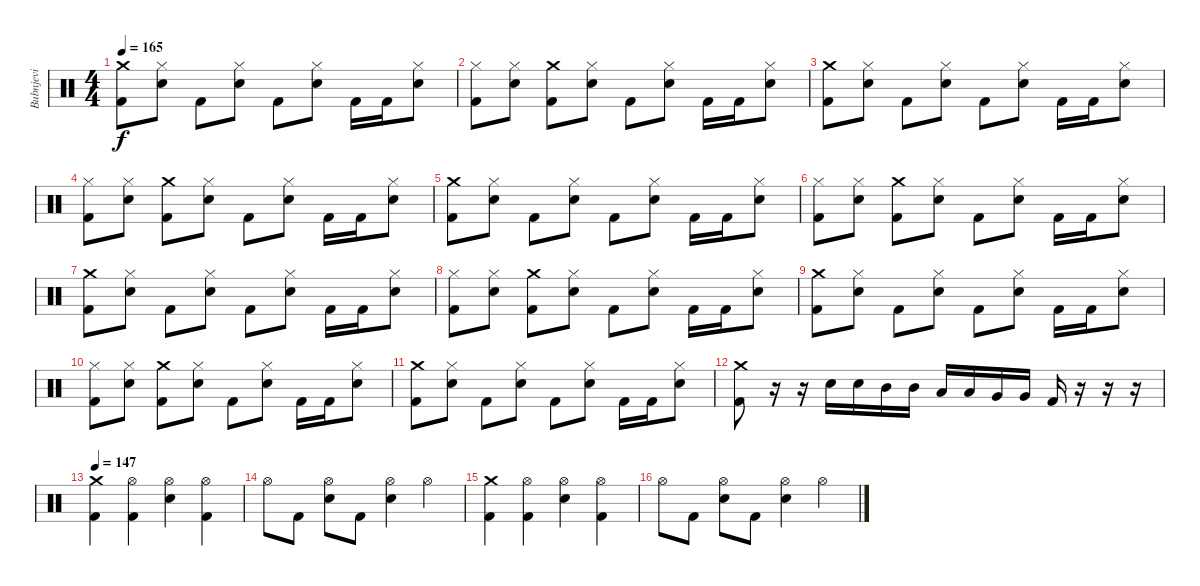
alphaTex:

\track ("Bubnjevi" "Bubnjevi") {instrument percussion}
\staff {score}
\articulation defaults
\ts (4 4)
\tempo 165
\clef neutral
\ks c
("Crash medium (hit)" "Kick (hit) 2").8{dy f} ("Hi-Hat (closed)" "Electric Snare (hit)").8 "Kick (hit) 2".8 ("Hi-Hat (closed)" "Electric Snare (hit)").8 "Kick (hit) 2".8 ("Hi-Hat (closed)" "Electric Snare (hit)").8 "Kick (hit) 2".16 "Kick (hit) 2".16 ("Hi-Hat (closed)" "Electric Snare (hit)").8 |
("Hi-Hat (closed)" "Kick (hit) 2").8 ("Hi-Hat (closed)" "Electric Snare (hit)").8 ("Crash medium (hit)" "Kick (hit) 2").8 ("Hi-Hat (closed)" "Electric Snare (hit)").8 "Kick (hit) 2".8 ("Hi-Hat (closed)" "Electric Snare (hit)").8 "Kick (hit) 2".16 "Kick (hit) 2".16 ("Hi-Hat (closed)" "Electric Snare (hit)").8 |
("Crash medium (hit)" "Kick (hit) 2").8 ("Hi-Hat (closed)" "Electric Snare (hit)").8 "Kick (hit) 2".8 ("Hi-Hat (closed)" "Electric Snare (hit)").8 "Kick (hit) 2".8 ("Hi-Hat (closed)" "Electric Snare (hit)").8 "Kick (hit) 2".16 "Kick (hit) 2".16 ("Hi-Hat (closed)" "Electric Snare (hit)").8 |
("Hi-Hat (closed)" "Kick (hit) 2").8 ("Hi-Hat (closed)" "Electric Snare (hit)").8 ("Crash medium (hit)" "Kick (hit) 2").8 ("Hi-Hat (closed)" "Electric Snare (hit)").8 "Kick (hit) 2".8 ("Hi-Hat (closed)" "Electric Snare (hit)").8 "Kick (hit) 2".16 "Kick (hit) 2".16 ("Hi-Hat (closed)" "Electric Snare (hit)").8 |
("Crash medium (hit)" "Kick (hit) 2").8 ("Hi-Hat (closed)" "Electric Snare (hit)").8 "Kick (hit) 2".8 ("Hi-Hat (closed)" "Electric Snare (hit)").8 "Kick (hit) 2".8 ("Hi-Hat (closed)" "Electric Snare (hit)").8 "Kick (hit) 2".16 "Kick (hit) 2".16 ("Hi-Hat (closed)" "Electric Snare (hit)").8 |
("Hi-Hat (closed)" "Kick (hit) 2").8 ("Hi-Hat (closed)" "Electric Snare (hit)").8 ("Crash medium (hit)" "Kick (hit) 2").8 ("Hi-Hat (closed)" "Electric Snare (hit)").8 "Kick (hit) 2".8 ("Hi-Hat (closed)" "Electric Snare (hit)").8 "Kick (hit) 2".16 "Kick (hit) 2".16 ("Hi-Hat (closed)" "Electric Snare (hit)").8 |
("Crash medium (hit)" "Kick (hit) 2").8 ("Hi-Hat (closed)" "Electric Snare (hit)").8 "Kick (hit) 2".8 ("Hi-Hat (closed)" "Electric Snare (hit)").8 "Kick (hit) 2".8 ("Hi-Hat (closed)" "Electric Snare (hit)").8 "Kick (hit) 2".16 "Kick (hit) 2".16 ("Hi-Hat (closed)" "Electric Snare (hit)").8 |
("Hi-Hat (closed)" "Kick (hit) 2").8 ("Hi-Hat (closed)" "Electric Snare (hit)").8 ("Crash medium (hit)" "Kick (hit) 2").8 ("Hi-Hat (closed)" "Electric Snare (hit)").8 "Kick (hit) 2".8 ("Hi-Hat (closed)" "Electric Snare (hit)").8 "Kick (hit) 2".16 "Kick (hit) 2".16 ("Hi-Hat (closed)" "Electric Snare (hit)").8 |
("Crash medium (hit)" "Kick (hit) 2").8 ("Hi-Hat (closed)" "Electric Snare (hit)").8 "Kick (hit) 2".8 ("Hi-Hat (closed)" "Electric Snare (hit)").8 "Kick (hit) 2".8 ("Hi-Hat (closed)" "Electric Snare (hit)").8 "Kick (hit) 2".16 "Kick (hit) 2".16 ("Hi-Hat (closed)" "Electric Snare (hit)").8 |
("Hi-Hat (closed)" "Kick (hit) 2").8 ("Hi-Hat (closed)" "Electric Snare (hit)").8 ("Crash medium (hit)" "Kick (hit) 2").8 ("Hi-Hat (closed)" "Electric Snare (hit)").8 "Kick (hit) 2".8 ("Hi-Hat (closed)" "Electric Snare (hit)").8 "Kick (hit) 2".16 "Kick (hit) 2".16 ("Hi-Hat (closed)" "Electric Snare (hit)").8 |
("Crash medium (hit)" "Kick (hit) 2").8 ("Hi-Hat (closed)" "Electric Snare (hit)").8 "Kick (hit) 2".8 ("Hi-Hat (closed)" "Electric Snare (hit)").8 "Kick (hit) 2".8 ("Hi-Hat (closed)" "Electric Snare (hit)").8 "Kick (hit) 2".16 "Kick (hit) 2".16 ("Hi-Hat (closed)" "Electric Snare (hit)").8 |
("Crash medium (hit)" "Kick (hit) 2").8 r.16 r.16 "Electric Snare (hit)".16 "Electric Snare (hit)".16 "Mid Tom (hit)".16 "Mid Tom (hit)".16 "Low Tom (hit)".16 "Low Tom (hit)".16 "Very Low Tom (hit)".16 "Very Low Tom (hit)".16 "Kick (hit) 2".16 r.16 r.16 r.16 |
\tempo 147
("Crash medium (hit)" "Kick (hit) 2").4 ("Hi-Hat (open)" "Kick (hit) 2").4 ("Hi-Hat (open)" "Electric Snare (hit)").4 ("Hi-Hat (open)" "Kick (hit) 2").4 |
"Hi-Hat (open)".8 "Kick (hit) 2".8 ("Hi-Hat (open)" "Electric Snare (hit)").8 "Kick (hit) 2".8 ("Hi-Hat (open)" "Electric Snare (hit)").4 "Hi-Hat (open)".4 |
("Crash medium (hit)" "Kick (hit) 2").4 ("Hi-Hat (open)" "Kick (hit) 2").4 ("Hi-Hat (open)" "Electric Snare (hit)").4 ("Hi-Hat (open)" "Kick (hit) 2").4 |
"Hi-Hat (open)".8 "Kick (hit) 2".8 ("Hi-Hat (open)" "Electric Snare (hit)").8 "Kick (hit) 2".8 ("Hi-Hat (open)" "Electric Snare (hit)").4 "Hi-Hat (open)".4
